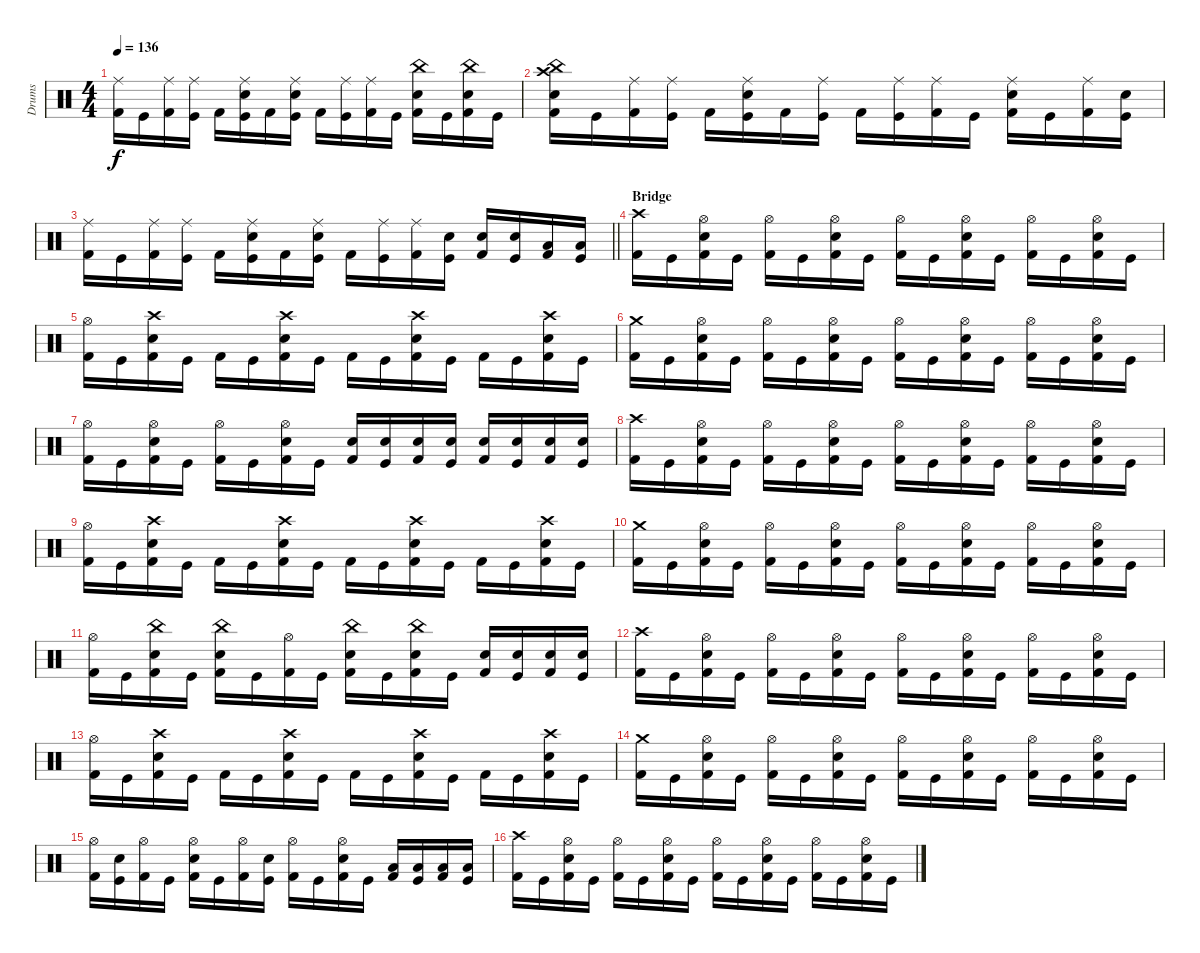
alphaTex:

\track ("Drums" "Drums") {instrument percussion}
\staff {score}
\articulation defaults
\ts (4 4)
\tempo 136
\clef neutral
\ks c
("Kick (hit) 2" "Ride (middle)").16{dy f} "Kick (hit)".16 ("Kick (hit) 2" "Ride (middle)").16 ("Kick (hit)" "Ride (middle)").16 "Kick (hit) 2".16 ("Kick (hit)" "Snare (hit) 2" "Ride (middle)").16 "Kick (hit) 2".16 ("Kick (hit)" "Snare (hit) 2" "Ride (middle)").16 "Kick (hit) 2".16 ("Kick (hit)" "Ride (middle)").16 ("Kick (hit) 2" "Ride (middle)").16 "Kick (hit)".16 ("Kick (hit) 2" "Snare (hit) 2" "China (hit)").16 "Kick (hit)".16 ("Kick (hit) 2" "Snare (hit) 2" "China (hit)").16 "Kick (hit)".16 |
("Kick (hit) 2" "Snare (hit) 2" "Crash high (hit)" "China (hit)").16 "Kick (hit)".16 ("Kick (hit) 2" "Ride (middle)").16 ("Kick (hit)" "Ride (middle)").16 "Kick (hit) 2".16 ("Kick (hit)" "Snare (hit) 2" "Ride (middle)").16 "Kick (hit) 2".16 ("Kick (hit)" "Ride (middle)").16 "Kick (hit) 2".16 ("Kick (hit)" "Ride (middle)").16 ("Kick (hit) 2" "Ride (middle)").16 "Kick (hit)".16 ("Kick (hit) 2" "Snare (hit) 2" "Ride (middle)").16 "Kick (hit)".16 ("Kick (hit) 2" "Ride (middle)").16 ("Kick (hit)" "Snare (hit) 2").16 |
\barLineRight lightlight
("Kick (hit) 2" "Ride (middle)").16 "Kick (hit)".16 ("Kick (hit) 2" "Ride (middle)").16 ("Kick (hit)" "Ride (middle)").16 "Kick (hit) 2".16 ("Kick (hit)" "Snare (hit) 2" "Ride (middle)").16 "Kick (hit) 2".16 ("Kick (hit)" "Snare (hit) 2" "Ride (middle)").16 "Kick (hit) 2".16 ("Kick (hit)" "Ride (middle)").16 ("Kick (hit) 2" "Ride (middle)").16 ("Kick (hit)" "Snare (hit) 2").16 ("Kick (hit) 2" "Snare (hit) 2").16 ("Kick (hit)" "Snare (hit) 2").16 ("Kick (hit) 2" "Low Tom (hit)").16 ("Kick (hit)" "Low Tom (hit)").16 |
\section ("" "Bridge")
("Kick (hit) 2" "Crash high (hit)").16 "Kick (hit)".16 ("Kick (hit) 2" "Snare (hit) 2" "Hi-Hat (open)").16 "Kick (hit)".16 ("Kick (hit) 2" "Hi-Hat (open)").16 "Kick (hit)".16 ("Kick (hit) 2" "Snare (hit) 2" "Hi-Hat (open)").16 "Kick (hit)".16 ("Kick (hit) 2" "Hi-Hat (open)").16 "Kick (hit)".16 ("Kick (hit) 2" "Snare (hit) 2" "Hi-Hat (open)").16 "Kick (hit)".16 ("Kick (hit) 2" "Hi-Hat (open)").16 "Kick (hit)".16 ("Kick (hit) 2" "Snare (hit) 2" "Hi-Hat (open)").16 "Kick (hit)".16 |
("Kick (hit) 2" "Hi-Hat (open)").16 "Kick (hit)".16 ("Kick (hit) 2" "Snare (hit) 2" "Crash high (hit)").16 "Kick (hit)".16 "Kick (hit) 2".16 "Kick (hit)".16 ("Kick (hit) 2" "Snare (hit) 2" "Crash high (hit)").16 "Kick (hit)".16 "Kick (hit) 2".16 "Kick (hit)".16 ("Kick (hit) 2" "Snare (hit) 2" "Crash high (hit)").16 "Kick (hit)".16 "Kick (hit) 2".16 "Kick (hit)".16 ("Kick (hit) 2" "Snare (hit) 2" "Crash high (hit)").16 "Kick (hit)".16 |
("Kick (hit) 2" "Crash medium (hit)").16 "Kick (hit)".16 ("Kick (hit) 2" "Snare (hit) 2" "Hi-Hat (open)").16 "Kick (hit)".16 ("Kick (hit) 2" "Hi-Hat (open)").16 "Kick (hit)".16 ("Kick (hit) 2" "Snare (hit) 2" "Hi-Hat (open)").16 "Kick (hit)".16 ("Kick (hit) 2" "Hi-Hat (open)").16 "Kick (hit)".16 ("Kick (hit) 2" "Snare (hit) 2" "Hi-Hat (open)").16 "Kick (hit)".16 ("Kick (hit) 2" "Hi-Hat (open)").16 "Kick (hit)".16 ("Kick (hit) 2" "Snare (hit) 2" "Hi-Hat (open)").16 "Kick (hit)".16 |
("Kick (hit) 2" "Hi-Hat (open)").16 "Kick (hit)".16 ("Kick (hit) 2" "Snare (hit) 2" "Hi-Hat (open)").16 "Kick (hit)".16 ("Kick (hit) 2" "Hi-Hat (open)").16 "Kick (hit)".16 ("Kick (hit) 2" "Snare (hit) 2" "Hi-Hat (open)").16 "Kick (hit)".16 ("Kick (hit) 2" "Snare (hit) 2").16 ("Kick (hit)" "Snare (hit) 2").16 ("Kick (hit) 2" "Snare (hit) 2").16 ("Kick (hit)" "Snare (hit) 2").16 ("Kick (hit) 2" "Snare (hit) 2").16 ("Kick (hit)" "Snare (hit) 2").16 ("Kick (hit) 2" "Snare (hit) 2").16 ("Kick (hit)" "Snare (hit) 2").16 |
("Kick (hit) 2" "Crash high (hit)").16 "Kick (hit)".16 ("Kick (hit) 2" "Snare (hit) 2" "Hi-Hat (open)").16 "Kick (hit)".16 ("Kick (hit) 2" "Hi-Hat (open)").16 "Kick (hit)".16 ("Kick (hit) 2" "Snare (hit) 2" "Hi-Hat (open)").16 "Kick (hit)".16 ("Kick (hit) 2" "Hi-Hat (open)").16 "Kick (hit)".16 ("Kick (hit) 2" "Snare (hit) 2" "Hi-Hat (open)").16 "Kick (hit)".16 ("Kick (hit) 2" "Hi-Hat (open)").16 "Kick (hit)".16 ("Kick (hit) 2" "Snare (hit) 2" "Hi-Hat (open)").16 "Kick (hit)".16 |
("Kick (hit) 2" "Hi-Hat (open)").16 "Kick (hit)".16 ("Kick (hit) 2" "Snare (hit) 2" "Crash high (hit)").16 "Kick (hit)".16 "Kick (hit) 2".16 "Kick (hit)".16 ("Kick (hit) 2" "Snare (hit) 2" "Crash high (hit)").16 "Kick (hit)".16 "Kick (hit) 2".16 "Kick (hit)".16 ("Kick (hit) 2" "Snare (hit) 2" "Crash high (hit)").16 "Kick (hit)".16 "Kick (hit) 2".16 "Kick (hit)".16 ("Kick (hit) 2" "Snare (hit) 2" "Crash high (hit)").16 "Kick (hit)".16 |
("Kick (hit) 2" "Crash medium (hit)").16 "Kick (hit)".16 ("Kick (hit) 2" "Snare (hit) 2" "Hi-Hat (open)").16 "Kick (hit)".16 ("Kick (hit) 2" "Hi-Hat (open)").16 "Kick (hit)".16 ("Kick (hit) 2" "Snare (hit) 2" "Hi-Hat (open)").16 "Kick (hit)".16 ("Kick (hit) 2" "Hi-Hat (open)").16 "Kick (hit)".16 ("Kick (hit) 2" "Snare (hit) 2" "Hi-Hat (open)").16 "Kick (hit)".16 ("Kick (hit) 2" "Hi-Hat (open)").16 "Kick (hit)".16 ("Kick (hit) 2" "Snare (hit) 2" "Hi-Hat (open)").16 "Kick (hit)".16 |
("Kick (hit) 2" "Hi-Hat (open)").16 "Kick (hit)".16 ("Kick (hit) 2" "Snare (hit) 2" "China (hit)").16 "Kick (hit)".16 ("Kick (hit) 2" "Snare (hit) 2" "China (hit)").16 "Kick (hit)".16 ("Kick (hit) 2" "Hi-Hat (open)").16 "Kick (hit)".16 ("Kick (hit) 2" "Snare (hit) 2" "China (hit)").16 "Kick (hit)".16 ("Kick (hit) 2" "Snare (hit) 2" "China (hit)").16 "Kick (hit)".16 ("Kick (hit) 2" "Snare (hit) 2").16 ("Kick (hit)" "Snare (hit) 2").16 ("Kick (hit) 2" "Snare (hit) 2").16 ("Kick (hit)" "Snare (hit) 2").16 |
("Kick (hit) 2" "Crash high (hit)").16 "Kick (hit)".16 ("Kick (hit) 2" "Snare (hit) 2" "Hi-Hat (open)").16 "Kick (hit)".16 ("Kick (hit) 2" "Hi-Hat (open)").16 "Kick (hit)".16 ("Kick (hit) 2" "Snare (hit) 2" "Hi-Hat (open)").16 "Kick (hit)".16 ("Kick (hit) 2" "Hi-Hat (open)").16 "Kick (hit)".16 ("Kick (hit) 2" "Snare (hit) 2" "Hi-Hat (open)").16 "Kick (hit)".16 ("Kick (hit) 2" "Hi-Hat (open)").16 "Kick (hit)".16 ("Kick (hit) 2" "Snare (hit) 2" "Hi-Hat (open)").16 "Kick (hit)".16 |
("Kick (hit) 2" "Hi-Hat (open)").16 "Kick (hit)".16 ("Kick (hit) 2" "Snare (hit) 2" "Crash high (hit)").16 "Kick (hit)".16 "Kick (hit) 2".16 "Kick (hit)".16 ("Kick (hit) 2" "Snare (hit) 2" "Crash high (hit)").16 "Kick (hit)".16 "Kick (hit) 2".16 "Kick (hit)".16 ("Kick (hit) 2" "Snare (hit) 2" "Crash high (hit)").16 "Kick (hit)".16 "Kick (hit) 2".16 "Kick (hit)".16 ("Kick (hit) 2" "Snare (hit) 2" "Crash high (hit)").16 "Kick (hit)".16 |
("Kick (hit) 2" "Crash medium (hit)").16 "Kick (hit)".16 ("Kick (hit) 2" "Snare (hit) 2" "Hi-Hat (open)").16 "Kick (hit)".16 ("Kick (hit) 2" "Hi-Hat (open)").16 "Kick (hit)".16 ("Kick (hit) 2" "Snare (hit) 2" "Hi-Hat (open)").16 "Kick (hit)".16 ("Kick (hit) 2" "Hi-Hat (open)").16 "Kick (hit)".16 ("Kick (hit) 2" "Snare (hit) 2" "Hi-Hat (open)").16 "Kick (hit)".16 ("Kick (hit) 2" "Hi-Hat (open)").16 "Kick (hit)".16 ("Kick (hit) 2" "Snare (hit) 2" "Hi-Hat (open)").16 "Kick (hit)".16 |
("Kick (hit) 2" "Hi-Hat (open)").16 ("Kick (hit)" "Snare (hit) 2").16 ("Kick (hit) 2" "Hi-Hat (open)").16 "Kick (hit)".16 ("Kick (hit) 2" "Snare (hit) 2" "Hi-Hat (open)").16 "Kick (hit)".16 ("Kick (hit) 2" "Hi-Hat (open)").16 ("Kick (hit)" "Snare (hit) 2").16 ("Kick (hit) 2" "Hi-Hat (open)").16 "Kick (hit)".16 ("Kick (hit) 2" "Snare (hit) 2" "Hi-Hat (open)").16 "Kick (hit)".16 ("Kick (hit) 2" "Low Tom (hit)").16 ("Kick (hit)" "Low Tom (hit)").16 ("Kick (hit) 2" "Low Tom (hit)").16 ("Kick (hit)" "Low Tom (hit)").16 |
("Kick (hit) 2" "Crash high (hit)").16 "Kick (hit)".16 ("Kick (hit) 2" "Snare (hit) 2" "Hi-Hat (open)").16 "Kick (hit)".16 ("Kick (hit) 2" "Hi-Hat (open)").16 "Kick (hit)".16 ("Kick (hit) 2" "Snare (hit) 2" "Hi-Hat (open)").16 "Kick (hit)".16 ("Kick (hit) 2" "Hi-Hat (open)").16 "Kick (hit)".16 ("Kick (hit) 2" "Snare (hit) 2" "Hi-Hat (open)").16 "Kick (hit)".16 ("Kick (hit) 2" "Hi-Hat (open)").16 "Kick (hit)".16 ("Kick (hit) 2" "Snare (hit) 2" "Hi-Hat (open)").16 "Kick (hit)".16
